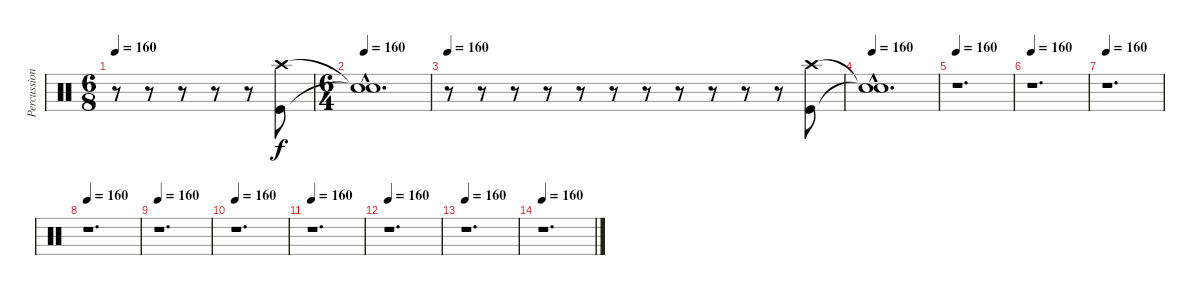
\track ("Percussion" "Percussion") {instrument percussion}
\staff {score}
\articulation defaults
\ts (6 8)
\tempo 160
\clef neutral
\ks c
r.8{dy f} r.8 r.8 r.8 r.8 ("Crash high (hit)" "Kick (hit)").8 |
\ts (6 4)
\tempo 160
("Snare (hit)"{hac t} "Snare (hit)"{hac t}).1{d} |
\tempo 160
r.8 r.8 r.8 r.8 r.8 r.8 r.8 r.8 r.8 r.8 r.8 ("Crash high (hit)" "Kick (hit)").8 |
\tempo 160
("Snare (hit)"{hac t} "Snare (hit)"{hac t}).1{d} |
\tempo 160
r.1{d} |
\tempo 160
r.1{d} |
\tempo 160
r.1{d} |
\tempo 160
r.1{d} |
\tempo 160
r.1{d} |
\tempo 160
r.1{d} |
\tempo 160
r.1{d} |
\tempo 160
r.1{d} |
\tempo 160
r.1{d} |
\tempo 160
r.1{d}
